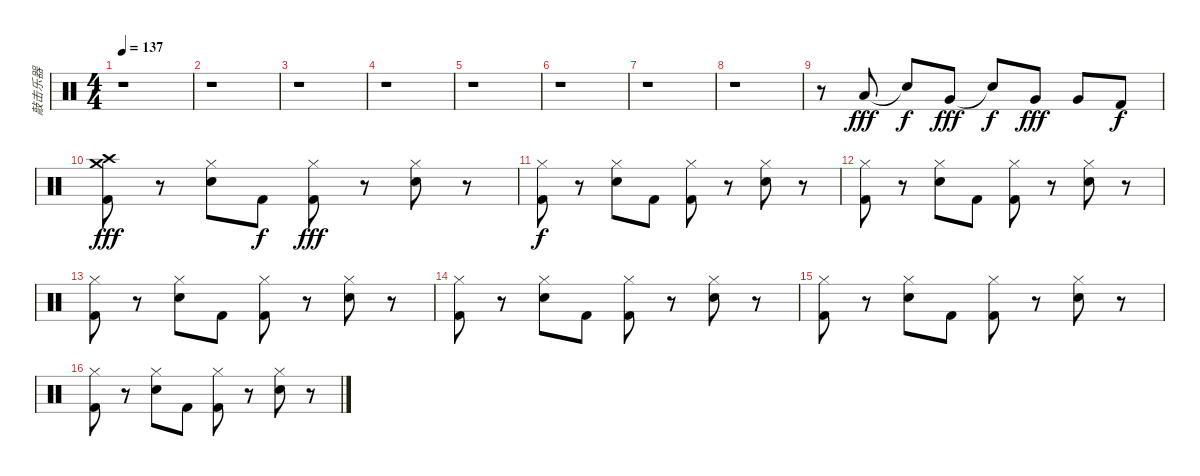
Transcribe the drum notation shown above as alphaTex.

\track ("敲击乐器" "敲击乐器") {instrument percussion}
\staff {score}
\articulation defaults
\ts (4 4)
\tempo 137
\clef neutral
\ks c
r.1{dy fff} |
r.1 |
r.1 |
r.1 |
r.1 |
r.1 |
r.1 |
r.1 |
r.8 "Low Tom (hit)".8 "Snare (hit)"{t}.8{dy f} "Very Low Tom (hit)".8{dy fff} "Snare (hit)"{t}.8{dy f} "Very Low Tom (hit)".8{dy fff} "Very Low Tom (hit)".8 "Kick (hit) 2".8{dy f} |
("Kick (hit) 2" "Crash medium (hit)" "Crash high (hit)").8{dy fff} r.8 ("Snare (hit) 2" "Hi-Hat (closed)").8 "Kick (hit) 2".8{dy f} ("Kick (hit) 2" "Hi-Hat (closed)").8{dy fff} r.8 ("Snare (hit) 2" "Hi-Hat (closed)").8 r.8 |
("Kick (hit) 2" "Hi-Hat (closed)").8{dy f} r.8 ("Snare (hit) 2" "Hi-Hat (closed)").8 "Kick (hit) 2".8 ("Kick (hit) 2" "Hi-Hat (closed)").8 r.8 ("Snare (hit) 2" "Hi-Hat (closed)").8 r.8 |
("Kick (hit) 2" "Hi-Hat (closed)").8 r.8 ("Snare (hit) 2" "Hi-Hat (closed)").8 "Kick (hit) 2".8 ("Kick (hit) 2" "Hi-Hat (closed)").8 r.8 ("Snare (hit) 2" "Hi-Hat (closed)").8 r.8 |
("Kick (hit) 2" "Hi-Hat (closed)").8 r.8 ("Snare (hit) 2" "Hi-Hat (closed)").8 "Kick (hit) 2".8 ("Kick (hit) 2" "Hi-Hat (closed)").8 r.8 ("Snare (hit) 2" "Hi-Hat (closed)").8 r.8 |
("Kick (hit) 2" "Hi-Hat (closed)").8 r.8 ("Snare (hit) 2" "Hi-Hat (closed)").8 "Kick (hit) 2".8 ("Kick (hit) 2" "Hi-Hat (closed)").8 r.8 ("Snare (hit) 2" "Hi-Hat (closed)").8 r.8 |
("Kick (hit) 2" "Hi-Hat (closed)").8 r.8 ("Snare (hit) 2" "Hi-Hat (closed)").8 "Kick (hit) 2".8 ("Kick (hit) 2" "Hi-Hat (closed)").8 r.8 ("Snare (hit) 2" "Hi-Hat (closed)").8 r.8 |
("Kick (hit) 2" "Hi-Hat (closed)").8 r.8 ("Snare (hit) 2" "Hi-Hat (closed)").8 "Kick (hit) 2".8 ("Kick (hit) 2" "Hi-Hat (closed)").8 r.8 ("Snare (hit) 2" "Hi-Hat (closed)").8 r.8
